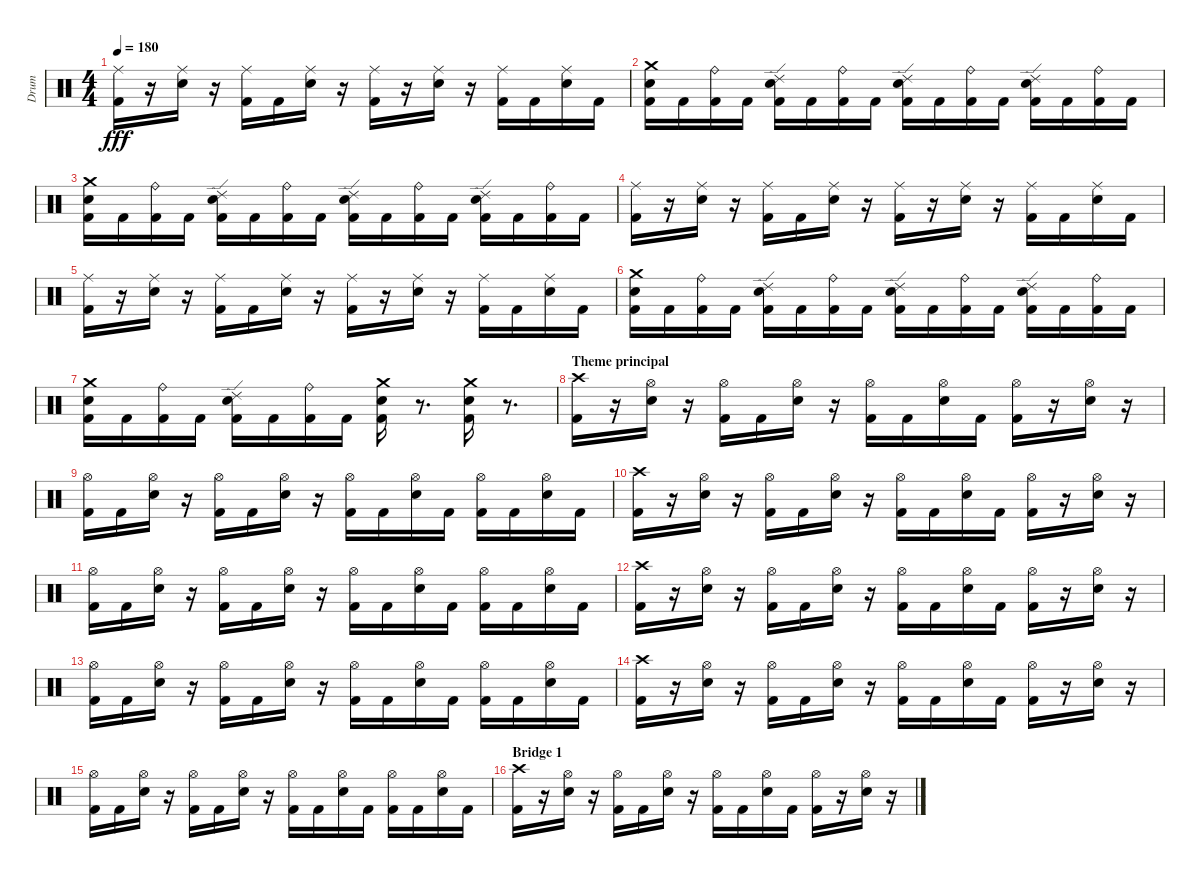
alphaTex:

\track ("Drum" "Drum") {instrument percussion}
\staff {score}
\articulation defaults
\ts (4 4)
\tempo 180
\clef neutral
\ks c
("Kick (hit) 2" "Ride (middle)").16{dy fff} r.16 ("Electric Snare (hit)" "Ride (middle)").16 r.16 ("Kick (hit) 2" "Ride (middle)").16 "Kick (hit) 2".16 ("Electric Snare (hit)" "Ride (middle)").16 r.16 ("Kick (hit) 2" "Ride (middle)").16 r.16 ("Electric Snare (hit)" "Ride (middle)").16 r.16 ("Kick (hit) 2" "Ride (middle)").16 "Kick (hit) 2".16 ("Electric Snare (hit)" "Ride (middle)").16 "Kick (hit) 2".16 |
("Electric Snare (hit)" "Kick (hit) 2" "Crash medium (hit)").16 "Kick (hit) 2".16 ("Kick (hit) 2" "Ride (bell)").16 "Kick (hit) 2".16 ("Electric Snare (hit)" "Kick (hit) 2" "Ride (edge) 2").16 "Kick (hit) 2".16 ("Kick (hit) 2" "Ride (bell)").16 "Kick (hit) 2".16 ("Electric Snare (hit)" "Kick (hit) 2" "Ride (edge) 2").16 "Kick (hit) 2".16 ("Kick (hit) 2" "Ride (bell)").16 "Kick (hit) 2".16 ("Kick (hit) 2" "Electric Snare (hit)" "Ride (edge) 2").16 "Kick (hit) 2".16 ("Kick (hit) 2" "Ride (bell)").16 "Kick (hit) 2".16 |
("Electric Snare (hit)" "Kick (hit) 2" "Crash medium (hit)").16 "Kick (hit) 2".16 ("Kick (hit) 2" "Ride (bell)").16 "Kick (hit) 2".16 ("Electric Snare (hit)" "Kick (hit) 2" "Ride (edge) 2").16 "Kick (hit) 2".16 ("Kick (hit) 2" "Ride (bell)").16 "Kick (hit) 2".16 ("Kick (hit) 2" "Electric Snare (hit)" "Ride (edge) 2").16 "Kick (hit) 2".16 ("Kick (hit) 2" "Ride (bell)").16 "Kick (hit) 2".16 ("Kick (hit) 2" "Electric Snare (hit)" "Ride (edge) 2").16 "Kick (hit) 2".16 ("Kick (hit) 2" "Ride (bell)").16 "Kick (hit) 2".16 |
("Kick (hit) 2" "Ride (middle)").16 r.16 ("Electric Snare (hit)" "Ride (middle)").16 r.16 ("Kick (hit) 2" "Ride (middle)").16 "Kick (hit) 2".16 ("Electric Snare (hit)" "Ride (middle)").16 r.16 ("Kick (hit) 2" "Ride (middle)").16 r.16 ("Electric Snare (hit)" "Ride (middle)").16 r.16 ("Kick (hit) 2" "Ride (middle)").16 "Kick (hit) 2".16 ("Electric Snare (hit)" "Ride (middle)").16 "Kick (hit) 2".16 |
("Kick (hit) 2" "Ride (middle)").16 r.16 ("Electric Snare (hit)" "Ride (middle)").16 r.16 ("Kick (hit) 2" "Ride (middle)").16 "Kick (hit) 2".16 ("Electric Snare (hit)" "Ride (middle)").16 r.16 ("Kick (hit) 2" "Ride (middle)").16 r.16 ("Electric Snare (hit)" "Ride (middle)").16 r.16 ("Kick (hit) 2" "Ride (middle)").16 "Kick (hit) 2".16 ("Electric Snare (hit)" "Ride (middle)").16 "Kick (hit) 2".16 |
("Kick (hit) 2" "Electric Snare (hit)" "Crash medium (hit)").16 "Kick (hit) 2".16 ("Kick (hit) 2" "Ride (bell)").16 "Kick (hit) 2".16 ("Kick (hit) 2" "Electric Snare (hit)" "Ride (edge) 2").16 "Kick (hit) 2".16 ("Kick (hit) 2" "Ride (bell)").16 "Kick (hit) 2".16 ("Electric Snare (hit)" "Kick (hit) 2" "Ride (edge) 2").16 "Kick (hit) 2".16 ("Kick (hit) 2" "Ride (bell)").16 "Kick (hit) 2".16 ("Kick (hit) 2" "Electric Snare (hit)" "Ride (edge) 2").16 "Kick (hit) 2".16 ("Kick (hit) 2" "Ride (bell)").16 "Kick (hit) 2".16 |
("Electric Snare (hit)" "Kick (hit) 2" "Crash medium (hit)").16 "Kick (hit) 2".16 ("Kick (hit) 2" "Ride (bell)").16 "Kick (hit) 2".16 ("Kick (hit) 2" "Electric Snare (hit)" "Ride (edge) 2").16 "Kick (hit) 2".16 ("Kick (hit) 2" "Ride (bell)").16 "Kick (hit) 2".16 ("Kick (hit) 2" "Electric Snare (hit)" "Crash medium (hit)").16 r.8{d} ("Electric Snare (hit)" "Kick (hit) 2" "Crash medium (hit)").16 r.8{d} |
\section ("" "Theme principal")
("Kick (hit) 2" "Crash high (hit)").16 r.16 ("Electric Snare (hit)" "Hi-Hat (open)").16 r.16 ("Kick (hit) 2" "Hi-Hat (open)").16 "Kick (hit) 2".16 ("Electric Snare (hit)" "Hi-Hat (open)").16 r.16 ("Kick (hit) 2" "Hi-Hat (open)").16 "Kick (hit) 2".16 ("Electric Snare (hit)" "Hi-Hat (open)").16 "Kick (hit) 2".16 ("Kick (hit) 2" "Hi-Hat (open)").16 r.16 ("Electric Snare (hit)" "Hi-Hat (open)").16 r.16 |
("Kick (hit) 2" "Hi-Hat (open)").16 "Kick (hit) 2".16 ("Electric Snare (hit)" "Hi-Hat (open)").16 r.16 ("Kick (hit) 2" "Hi-Hat (open)").16 "Kick (hit) 2".16 ("Electric Snare (hit)" "Hi-Hat (open)").16 r.16 ("Kick (hit) 2" "Hi-Hat (open)").16 "Kick (hit) 2".16 ("Electric Snare (hit)" "Hi-Hat (open)").16 "Kick (hit) 2".16 ("Kick (hit) 2" "Hi-Hat (open)").16 "Kick (hit) 2".16 ("Electric Snare (hit)" "Hi-Hat (open)").16 "Kick (hit) 2".16 |
("Kick (hit) 2" "Crash high (hit)").16 r.16 ("Electric Snare (hit)" "Hi-Hat (open)").16 r.16 ("Kick (hit) 2" "Hi-Hat (open)").16 "Kick (hit) 2".16 ("Electric Snare (hit)" "Hi-Hat (open)").16 r.16 ("Kick (hit) 2" "Hi-Hat (open)").16 "Kick (hit) 2".16 ("Electric Snare (hit)" "Hi-Hat (open)").16 "Kick (hit) 2".16 ("Kick (hit) 2" "Hi-Hat (open)").16 r.16 ("Electric Snare (hit)" "Hi-Hat (open)").16 r.16 |
("Kick (hit) 2" "Hi-Hat (open)").16 "Kick (hit) 2".16 ("Electric Snare (hit)" "Hi-Hat (open)").16 r.16 ("Kick (hit) 2" "Hi-Hat (open)").16 "Kick (hit) 2".16 ("Electric Snare (hit)" "Hi-Hat (open)").16 r.16 ("Kick (hit) 2" "Hi-Hat (open)").16 "Kick (hit) 2".16 ("Electric Snare (hit)" "Hi-Hat (open)").16 "Kick (hit) 2".16 ("Kick (hit) 2" "Hi-Hat (open)").16 "Kick (hit) 2".16 ("Electric Snare (hit)" "Hi-Hat (open)").16 "Kick (hit) 2".16 |
("Kick (hit) 2" "Crash high (hit)").16 r.16 ("Electric Snare (hit)" "Hi-Hat (open)").16 r.16 ("Kick (hit) 2" "Hi-Hat (open)").16 "Kick (hit) 2".16 ("Electric Snare (hit)" "Hi-Hat (open)").16 r.16 ("Kick (hit) 2" "Hi-Hat (open)").16 "Kick (hit) 2".16 ("Electric Snare (hit)" "Hi-Hat (open)").16 "Kick (hit) 2".16 ("Kick (hit) 2" "Hi-Hat (open)").16 r.16 ("Electric Snare (hit)" "Hi-Hat (open)").16 r.16 |
("Kick (hit) 2" "Hi-Hat (open)").16 "Kick (hit) 2".16 ("Electric Snare (hit)" "Hi-Hat (open)").16 r.16 ("Kick (hit) 2" "Hi-Hat (open)").16 "Kick (hit) 2".16 ("Electric Snare (hit)" "Hi-Hat (open)").16 r.16 ("Kick (hit) 2" "Hi-Hat (open)").16 "Kick (hit) 2".16 ("Electric Snare (hit)" "Hi-Hat (open)").16 "Kick (hit) 2".16 ("Kick (hit) 2" "Hi-Hat (open)").16 "Kick (hit) 2".16 ("Electric Snare (hit)" "Hi-Hat (open)").16 "Kick (hit) 2".16 |
("Kick (hit) 2" "Crash high (hit)").16 r.16 ("Electric Snare (hit)" "Hi-Hat (open)").16 r.16 ("Kick (hit) 2" "Hi-Hat (open)").16 "Kick (hit) 2".16 ("Electric Snare (hit)" "Hi-Hat (open)").16 r.16 ("Kick (hit) 2" "Hi-Hat (open)").16 "Kick (hit) 2".16 ("Electric Snare (hit)" "Hi-Hat (open)").16 "Kick (hit) 2".16 ("Kick (hit) 2" "Hi-Hat (open)").16 r.16 ("Electric Snare (hit)" "Hi-Hat (open)").16 r.16 |
("Kick (hit) 2" "Hi-Hat (open)").16 "Kick (hit) 2".16 ("Electric Snare (hit)" "Hi-Hat (open)").16 r.16 ("Kick (hit) 2" "Hi-Hat (open)").16 "Kick (hit) 2".16 ("Electric Snare (hit)" "Hi-Hat (open)").16 r.16 ("Kick (hit) 2" "Hi-Hat (open)").16 "Kick (hit) 2".16 ("Electric Snare (hit)" "Hi-Hat (open)").16 "Kick (hit) 2".16 ("Kick (hit) 2" "Hi-Hat (open)").16 "Kick (hit) 2".16 ("Electric Snare (hit)" "Hi-Hat (open)").16 "Kick (hit) 2".16 |
\section ("" "Bridge 1")
("Kick (hit) 2" "Crash high (hit)").16 r.16 ("Electric Snare (hit)" "Hi-Hat (open)").16 r.16 ("Kick (hit) 2" "Hi-Hat (open)").16 "Kick (hit) 2".16 ("Electric Snare (hit)" "Hi-Hat (open)").16 r.16 ("Kick (hit) 2" "Hi-Hat (open)").16 "Kick (hit) 2".16 ("Electric Snare (hit)" "Hi-Hat (open)").16 "Kick (hit) 2".16 ("Kick (hit) 2" "Hi-Hat (open)").16 r.16 ("Electric Snare (hit)" "Hi-Hat (open)").16 r.16
